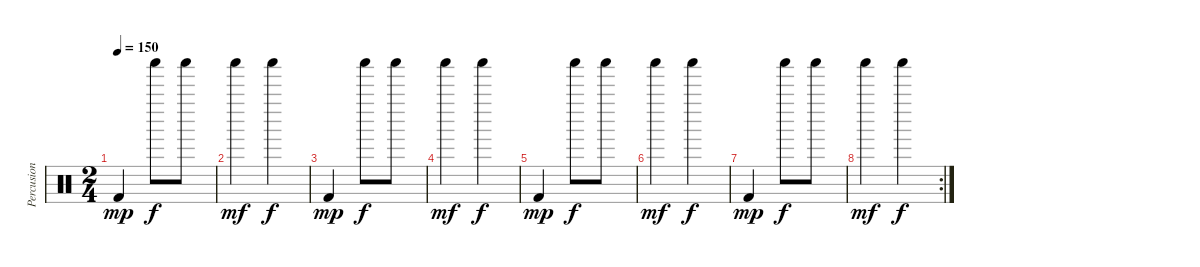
\track ("Percusion" "Percusion") {instrument percussion}
\staff {score}
\articulation defaults
\ts (2 4)
\tempo 150
\clef neutral
\ks c "Kick (hit) 2".4{dy mp} "Shaker (hit)".8{dy f} "Shaker (hit)".8
|
"Shaker (hit)".4{dy mf} "Shaker (hit)".4{dy f} |
"Kick (hit) 2".4{dy mp} "Shaker (hit)".8{dy f} "Shaker (hit)".8 |
"Shaker (hit)".4{dy mf} "Shaker (hit)".4{dy f} |
"Kick (hit) 2".4{dy mp} "Shaker (hit)".8{dy f} "Shaker (hit)".8 |
"Shaker (hit)".4{dy mf} "Shaker (hit)".4{dy f} |
"Kick (hit) 2".4{dy mp} "Shaker (hit)".8{dy f} "Shaker (hit)".8 |
\rc 2 "Shaker (hit)".4{dy mf} "Shaker (hit)".4{dy f}
